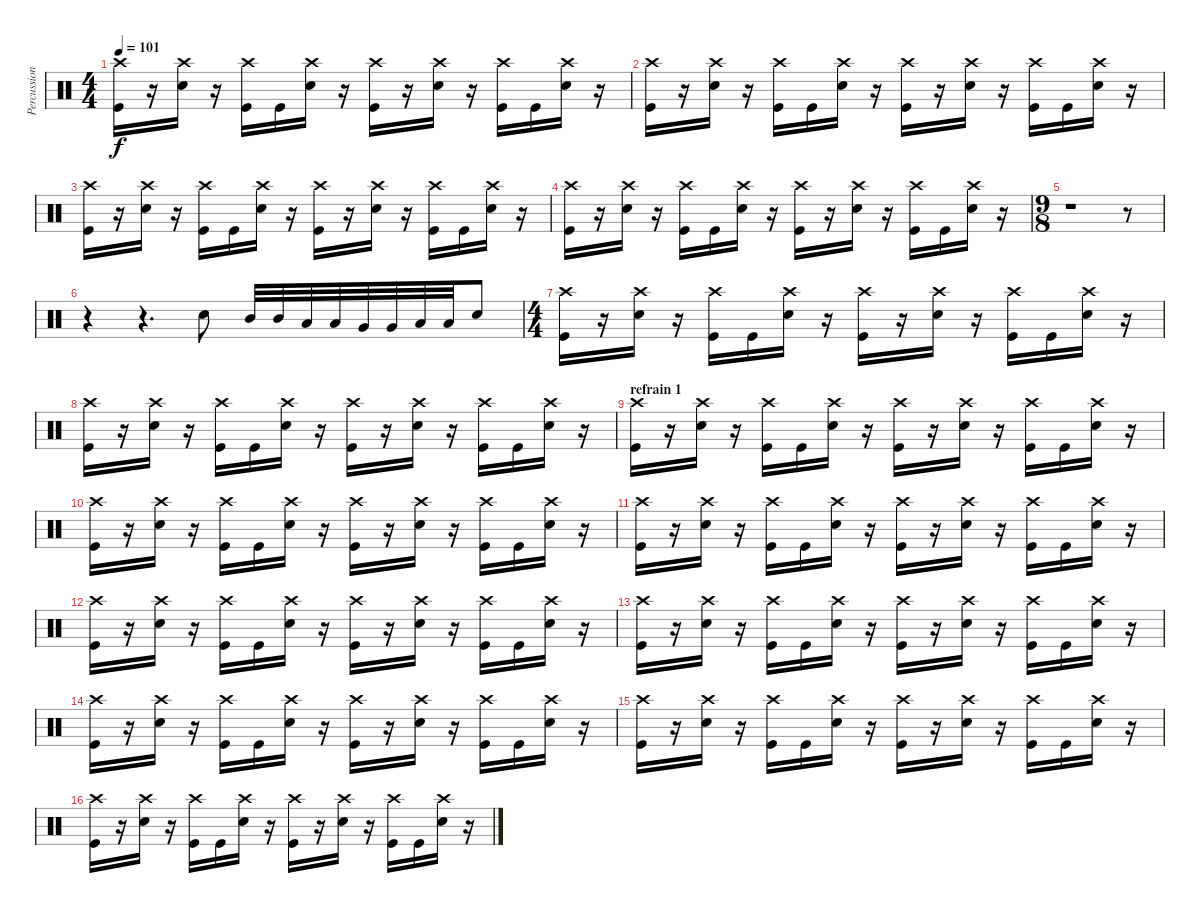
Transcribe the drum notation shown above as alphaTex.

\track ("Percussions" "Percussion") {instrument percussion}
\staff {score}
\articulation defaults
\ts (4 4)
\tempo 101
\clef neutral
\ks c
("Crash high (hit)" "Kick (hit)").16{dy f} r.16 ("Crash high (hit)" "Electric Snare (hit)").16 r.16 ("Crash high (hit)" "Kick (hit)").16 "Kick (hit)".16 ("Crash high (hit)" "Electric Snare (hit)").16 r.16 ("Crash high (hit)" "Kick (hit)").16 r.16 ("Crash high (hit)" "Electric Snare (hit)").16 r.16 ("Crash high (hit)" "Kick (hit)").16 "Kick (hit)".16 ("Crash high (hit)" "Electric Snare (hit)").16 r.16 |
("Crash high (hit)" "Kick (hit)").16 r.16 ("Crash high (hit)" "Electric Snare (hit)").16 r.16 ("Crash high (hit)" "Kick (hit)").16 "Kick (hit)".16 ("Crash high (hit)" "Electric Snare (hit)").16 r.16 ("Crash high (hit)" "Kick (hit)").16 r.16 ("Crash high (hit)" "Electric Snare (hit)").16 r.16 ("Crash high (hit)" "Kick (hit)").16 "Kick (hit)".16 ("Crash high (hit)" "Electric Snare (hit)").16 r.16 |
("Crash high (hit)" "Kick (hit)").16 r.16 ("Crash high (hit)" "Electric Snare (hit)").16 r.16 ("Crash high (hit)" "Kick (hit)").16 "Kick (hit)".16 ("Crash high (hit)" "Electric Snare (hit)").16 r.16 ("Crash high (hit)" "Kick (hit)").16 r.16 ("Crash high (hit)" "Electric Snare (hit)").16 r.16 ("Crash high (hit)" "Kick (hit)").16 "Kick (hit)".16 ("Crash high (hit)" "Electric Snare (hit)").16 r.16 |
("Crash high (hit)" "Kick (hit)").16 r.16 ("Crash high (hit)" "Electric Snare (hit)").16 r.16 ("Crash high (hit)" "Kick (hit)").16 "Kick (hit)".16 ("Crash high (hit)" "Electric Snare (hit)").16 r.16 ("Crash high (hit)" "Kick (hit)").16 r.16 ("Crash high (hit)" "Electric Snare (hit)").16 r.16 ("Crash high (hit)" "Kick (hit)").16 "Kick (hit)".16 ("Crash high (hit)" "Electric Snare (hit)").16 r.16 |
\ts (9 8)
r.1 r.8 |
r.4 r.4{d} "Electric Snare (hit)".8 "Mid Tom (hit)".32 "Mid Tom (hit)".32 "Low Tom (hit)".32 "Low Tom (hit)".32 "Very Low Tom (hit)".32 "Very Low Tom (hit)".32 "Low Floor Tom (hit)".32 "Low Floor Tom (hit)".32 "Electric Snare (hit)".8 |
\ts (4 4)
("Crash high (hit)" "Kick (hit)").16 r.16 ("Crash high (hit)" "Electric Snare (hit)").16 r.16 ("Crash high (hit)" "Kick (hit)").16 "Kick (hit)".16 ("Crash high (hit)" "Electric Snare (hit)").16 r.16 ("Crash high (hit)" "Kick (hit)").16 r.16 ("Crash high (hit)" "Electric Snare (hit)").16 r.16 ("Crash high (hit)" "Kick (hit)").16 "Kick (hit)".16 ("Crash high (hit)" "Electric Snare (hit)").16 r.16 |
("Crash high (hit)" "Kick (hit)").16 r.16 ("Crash high (hit)" "Electric Snare (hit)").16 r.16 ("Crash high (hit)" "Kick (hit)").16 "Kick (hit)".16 ("Crash high (hit)" "Electric Snare (hit)").16 r.16 ("Crash high (hit)" "Kick (hit)").16 r.16 ("Crash high (hit)" "Electric Snare (hit)").16 r.16 ("Crash high (hit)" "Kick (hit)").16 "Kick (hit)".16 ("Crash high (hit)" "Electric Snare (hit)").16 r.16 |
\section ("" "refrain 1")
("Crash high (hit)" "Kick (hit)").16 r.16 ("Crash high (hit)" "Electric Snare (hit)").16 r.16 ("Crash high (hit)" "Kick (hit)").16 "Kick (hit)".16 ("Crash high (hit)" "Electric Snare (hit)").16 r.16 ("Crash high (hit)" "Kick (hit)").16 r.16 ("Crash high (hit)" "Electric Snare (hit)").16 r.16 ("Crash high (hit)" "Kick (hit)").16 "Kick (hit)".16 ("Crash high (hit)" "Electric Snare (hit)").16 r.16 |
("Crash high (hit)" "Kick (hit)").16 r.16 ("Crash high (hit)" "Electric Snare (hit)").16 r.16 ("Crash high (hit)" "Kick (hit)").16 "Kick (hit)".16 ("Crash high (hit)" "Electric Snare (hit)").16 r.16 ("Crash high (hit)" "Kick (hit)").16 r.16 ("Crash high (hit)" "Electric Snare (hit)").16 r.16 ("Crash high (hit)" "Kick (hit)").16 "Kick (hit)".16 ("Crash high (hit)" "Electric Snare (hit)").16 r.16 |
("Crash high (hit)" "Kick (hit)").16 r.16 ("Crash high (hit)" "Electric Snare (hit)").16 r.16 ("Crash high (hit)" "Kick (hit)").16 "Kick (hit)".16 ("Crash high (hit)" "Electric Snare (hit)").16 r.16 ("Crash high (hit)" "Kick (hit)").16 r.16 ("Crash high (hit)" "Electric Snare (hit)").16 r.16 ("Crash high (hit)" "Kick (hit)").16 "Kick (hit)".16 ("Crash high (hit)" "Electric Snare (hit)").16 r.16 |
("Crash high (hit)" "Kick (hit)").16 r.16 ("Crash high (hit)" "Electric Snare (hit)").16 r.16 ("Crash high (hit)" "Kick (hit)").16 "Kick (hit)".16 ("Crash high (hit)" "Electric Snare (hit)").16 r.16 ("Crash high (hit)" "Kick (hit)").16 r.16 ("Crash high (hit)" "Electric Snare (hit)").16 r.16 ("Crash high (hit)" "Kick (hit)").16 "Kick (hit)".16 ("Crash high (hit)" "Electric Snare (hit)").16 r.16 |
("Crash high (hit)" "Kick (hit)").16 r.16 ("Crash high (hit)" "Electric Snare (hit)").16 r.16 ("Crash high (hit)" "Kick (hit)").16 "Kick (hit)".16 ("Crash high (hit)" "Electric Snare (hit)").16 r.16 ("Crash high (hit)" "Kick (hit)").16 r.16 ("Crash high (hit)" "Electric Snare (hit)").16 r.16 ("Crash high (hit)" "Kick (hit)").16 "Kick (hit)".16 ("Crash high (hit)" "Electric Snare (hit)").16 r.16 |
("Crash high (hit)" "Kick (hit)").16 r.16 ("Crash high (hit)" "Electric Snare (hit)").16 r.16 ("Crash high (hit)" "Kick (hit)").16 "Kick (hit)".16 ("Crash high (hit)" "Electric Snare (hit)").16 r.16 ("Crash high (hit)" "Kick (hit)").16 r.16 ("Crash high (hit)" "Electric Snare (hit)").16 r.16 ("Crash high (hit)" "Kick (hit)").16 "Kick (hit)".16 ("Crash high (hit)" "Electric Snare (hit)").16 r.16 |
("Crash high (hit)" "Kick (hit)").16 r.16 ("Crash high (hit)" "Electric Snare (hit)").16 r.16 ("Crash high (hit)" "Kick (hit)").16 "Kick (hit)".16 ("Crash high (hit)" "Electric Snare (hit)").16 r.16 ("Crash high (hit)" "Kick (hit)").16 r.16 ("Crash high (hit)" "Electric Snare (hit)").16 r.16 ("Crash high (hit)" "Kick (hit)").16 "Kick (hit)".16 ("Crash high (hit)" "Electric Snare (hit)").16 r.16 |
("Crash high (hit)" "Kick (hit)").16 r.16 ("Crash high (hit)" "Electric Snare (hit)").16 r.16 ("Crash high (hit)" "Kick (hit)").16 "Kick (hit)".16 ("Crash high (hit)" "Electric Snare (hit)").16 r.16 ("Crash high (hit)" "Kick (hit)").16 r.16 ("Crash high (hit)" "Electric Snare (hit)").16 r.16 ("Crash high (hit)" "Kick (hit)").16 "Kick (hit)".16 ("Crash high (hit)" "Electric Snare (hit)").16 r.16
